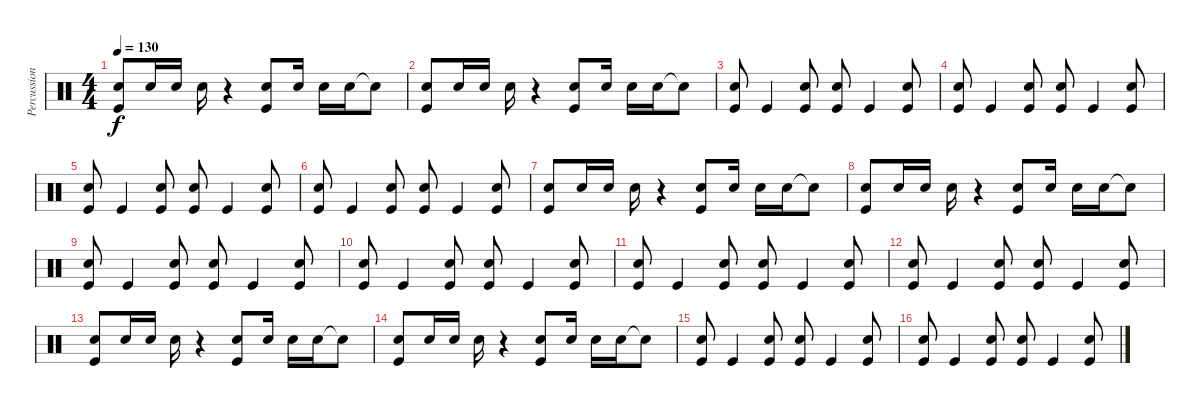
\track ("Percussion" "Percussion") {instrument percussion}
\staff {score}
\articulation defaults
\ts (4 4)
\tempo 130
\clef neutral
\ks c
("Kick (hit)" "Snare (hit) 2").8{dy f} "Snare (hit) 2".16 "Snare (hit) 2".16 "Snare (hit) 2".16 r.4 ("Kick (hit)" "Snare (hit) 2").8 "Snare (hit) 2".16 "Snare (hit) 2".16 "Snare (hit) 2".16 "Snare (hit)"{t}.8 |
("Kick (hit)" "Snare (hit) 2").8 "Snare (hit) 2".16 "Snare (hit) 2".16 "Snare (hit) 2".16 r.4 ("Kick (hit)" "Snare (hit) 2").8 "Snare (hit) 2".16 "Snare (hit) 2".16 "Snare (hit) 2".16 "Snare (hit)"{t}.8 |
("Kick (hit)" "Snare (hit) 2").8 "Kick (hit)".4 ("Kick (hit)" "Snare (hit) 2").8 ("Kick (hit)" "Snare (hit) 2").8 "Kick (hit)".4 ("Kick (hit)" "Snare (hit) 2").8 |
("Kick (hit)" "Snare (hit) 2").8 "Kick (hit)".4 ("Kick (hit)" "Snare (hit) 2").8 ("Kick (hit)" "Snare (hit) 2").8 "Kick (hit)".4 ("Kick (hit)" "Snare (hit) 2").8 |
("Kick (hit)" "Snare (hit) 2").8 "Kick (hit)".4 ("Kick (hit)" "Snare (hit) 2").8 ("Kick (hit)" "Snare (hit) 2").8 "Kick (hit)".4 ("Kick (hit)" "Snare (hit) 2").8 |
("Kick (hit)" "Snare (hit) 2").8 "Kick (hit)".4 ("Kick (hit)" "Snare (hit) 2").8 ("Kick (hit)" "Snare (hit) 2").8 "Kick (hit)".4 ("Kick (hit)" "Snare (hit) 2").8 |
("Kick (hit)" "Snare (hit) 2").8 "Snare (hit) 2".16 "Snare (hit) 2".16 "Snare (hit) 2".16 r.4 ("Kick (hit)" "Snare (hit) 2").8 "Snare (hit) 2".16 "Snare (hit) 2".16 "Snare (hit) 2".16 "Snare (hit)"{t}.8 |
("Kick (hit)" "Snare (hit) 2").8 "Snare (hit) 2".16 "Snare (hit) 2".16 "Snare (hit) 2".16 r.4 ("Kick (hit)" "Snare (hit) 2").8 "Snare (hit) 2".16 "Snare (hit) 2".16 "Snare (hit) 2".16 "Snare (hit)"{t}.8 |
("Kick (hit)" "Snare (hit) 2").8 "Kick (hit)".4 ("Kick (hit)" "Snare (hit) 2").8 ("Kick (hit)" "Snare (hit) 2").8 "Kick (hit)".4 ("Kick (hit)" "Snare (hit) 2").8 |
("Kick (hit)" "Snare (hit) 2").8 "Kick (hit)".4 ("Kick (hit)" "Snare (hit) 2").8 ("Kick (hit)" "Snare (hit) 2").8 "Kick (hit)".4 ("Kick (hit)" "Snare (hit) 2").8 |
("Kick (hit)" "Snare (hit) 2").8 "Kick (hit)".4 ("Kick (hit)" "Snare (hit) 2").8 ("Kick (hit)" "Snare (hit) 2").8 "Kick (hit)".4 ("Kick (hit)" "Snare (hit) 2").8 |
("Kick (hit)" "Snare (hit) 2").8 "Kick (hit)".4 ("Kick (hit)" "Snare (hit) 2").8 ("Kick (hit)" "Snare (hit) 2").8 "Kick (hit)".4 ("Kick (hit)" "Snare (hit) 2").8 |
("Kick (hit)" "Snare (hit) 2").8 "Snare (hit) 2".16 "Snare (hit) 2".16 "Snare (hit) 2".16 r.4 ("Kick (hit)" "Snare (hit) 2").8 "Snare (hit) 2".16 "Snare (hit) 2".16 "Snare (hit) 2".16 "Snare (hit)"{t}.8 |
("Kick (hit)" "Snare (hit) 2").8 "Snare (hit) 2".16 "Snare (hit) 2".16 "Snare (hit) 2".16 r.4 ("Kick (hit)" "Snare (hit) 2").8 "Snare (hit) 2".16 "Snare (hit) 2".16 "Snare (hit) 2".16 "Snare (hit)"{t}.8 |
("Kick (hit)" "Snare (hit) 2").8 "Kick (hit)".4 ("Kick (hit)" "Snare (hit) 2").8 ("Kick (hit)" "Snare (hit) 2").8 "Kick (hit)".4 ("Kick (hit)" "Snare (hit) 2").8 |
("Kick (hit)" "Snare (hit) 2").8 "Kick (hit)".4 ("Kick (hit)" "Snare (hit) 2").8 ("Kick (hit)" "Snare (hit) 2").8 "Kick (hit)".4 ("Kick (hit)" "Snare (hit) 2").8
